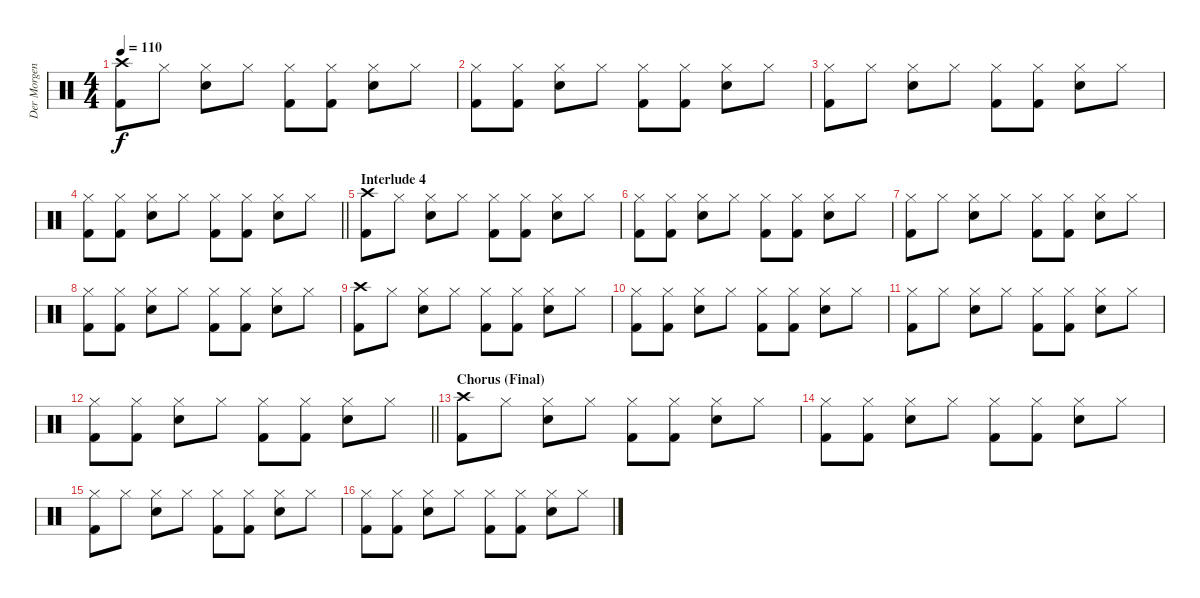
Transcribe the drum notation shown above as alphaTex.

\track ("Der Morgenstern" "Der Morgen") {instrument percussion}
\staff {score}
\articulation defaults
\ts (4 4)
\tempo 110
\clef neutral
\ks c
("Crash high (hit)" "Kick (hit) 2").8{dy f} "Hi-Hat (closed)".8 ("Hi-Hat (closed)" "Snare (hit) 2").8 "Hi-Hat (closed)".8 ("Hi-Hat (closed)" "Kick (hit) 2").8 ("Hi-Hat (closed)" "Kick (hit) 2").8 ("Hi-Hat (closed)" "Snare (hit) 2").8 "Hi-Hat (closed)".8 |
("Hi-Hat (closed)" "Kick (hit) 2").8 ("Hi-Hat (closed)" "Kick (hit) 2").8 ("Hi-Hat (closed)" "Snare (hit) 2").8 "Hi-Hat (closed)".8 ("Hi-Hat (closed)" "Kick (hit) 2").8 ("Hi-Hat (closed)" "Kick (hit) 2").8 ("Hi-Hat (closed)" "Snare (hit) 2").8 "Hi-Hat (closed)".8 |
("Hi-Hat (closed)" "Kick (hit) 2").8 "Hi-Hat (closed)".8 ("Hi-Hat (closed)" "Snare (hit) 2").8 "Hi-Hat (closed)".8 ("Hi-Hat (closed)" "Kick (hit) 2").8 ("Hi-Hat (closed)" "Kick (hit) 2").8 ("Hi-Hat (closed)" "Snare (hit) 2").8 "Hi-Hat (closed)".8 |
\barLineRight lightlight
("Hi-Hat (closed)" "Kick (hit) 2").8 ("Hi-Hat (closed)" "Kick (hit) 2").8 ("Hi-Hat (closed)" "Snare (hit) 2").8 "Hi-Hat (closed)".8 ("Hi-Hat (closed)" "Kick (hit) 2").8 ("Hi-Hat (closed)" "Kick (hit) 2").8 ("Hi-Hat (closed)" "Snare (hit) 2").8 "Hi-Hat (closed)".8 |
\section ("" "Interlude 4")
("Crash high (hit)" "Kick (hit) 2").8 "Hi-Hat (closed)".8 ("Hi-Hat (closed)" "Snare (hit) 2").8 "Hi-Hat (closed)".8 ("Hi-Hat (closed)" "Kick (hit) 2").8 ("Hi-Hat (closed)" "Kick (hit) 2").8 ("Hi-Hat (closed)" "Snare (hit) 2").8 "Hi-Hat (closed)".8 |
("Hi-Hat (closed)" "Kick (hit) 2").8 ("Hi-Hat (closed)" "Kick (hit) 2").8 ("Hi-Hat (closed)" "Snare (hit) 2").8 "Hi-Hat (closed)".8 ("Hi-Hat (closed)" "Kick (hit) 2").8 ("Hi-Hat (closed)" "Kick (hit) 2").8 ("Hi-Hat (closed)" "Snare (hit) 2").8 "Hi-Hat (closed)".8 |
("Hi-Hat (closed)" "Kick (hit) 2").8 "Hi-Hat (closed)".8 ("Hi-Hat (closed)" "Snare (hit) 2").8 "Hi-Hat (closed)".8 ("Hi-Hat (closed)" "Kick (hit) 2").8 ("Hi-Hat (closed)" "Kick (hit) 2").8 ("Hi-Hat (closed)" "Snare (hit) 2").8 "Hi-Hat (closed)".8 |
("Hi-Hat (closed)" "Kick (hit) 2").8 ("Hi-Hat (closed)" "Kick (hit) 2").8 ("Hi-Hat (closed)" "Snare (hit) 2").8 "Hi-Hat (closed)".8 ("Hi-Hat (closed)" "Kick (hit) 2").8 ("Hi-Hat (closed)" "Kick (hit) 2").8 ("Hi-Hat (closed)" "Snare (hit) 2").8 "Hi-Hat (closed)".8 |
("Crash high (hit)" "Kick (hit) 2").8 "Hi-Hat (closed)".8 ("Hi-Hat (closed)" "Snare (hit) 2").8 "Hi-Hat (closed)".8 ("Hi-Hat (closed)" "Kick (hit) 2").8 ("Hi-Hat (closed)" "Kick (hit) 2").8 ("Hi-Hat (closed)" "Snare (hit) 2").8 "Hi-Hat (closed)".8 |
("Hi-Hat (closed)" "Kick (hit) 2").8 ("Hi-Hat (closed)" "Kick (hit) 2").8 ("Hi-Hat (closed)" "Snare (hit) 2").8 "Hi-Hat (closed)".8 ("Hi-Hat (closed)" "Kick (hit) 2").8 ("Hi-Hat (closed)" "Kick (hit) 2").8 ("Hi-Hat (closed)" "Snare (hit) 2").8 "Hi-Hat (closed)".8 |
("Hi-Hat (closed)" "Kick (hit) 2").8 "Hi-Hat (closed)".8 ("Hi-Hat (closed)" "Snare (hit) 2").8 "Hi-Hat (closed)".8 ("Hi-Hat (closed)" "Kick (hit) 2").8 ("Hi-Hat (closed)" "Kick (hit) 2").8 ("Hi-Hat (closed)" "Snare (hit) 2").8 "Hi-Hat (closed)".8 |
\barLineRight lightlight
("Hi-Hat (closed)" "Kick (hit) 2").8 ("Hi-Hat (closed)" "Kick (hit) 2").8 ("Hi-Hat (closed)" "Snare (hit) 2").8 "Hi-Hat (closed)".8 ("Hi-Hat (closed)" "Kick (hit) 2").8 ("Hi-Hat (closed)" "Kick (hit) 2").8 ("Hi-Hat (closed)" "Snare (hit) 2").8 "Hi-Hat (closed)".8 |
\section ("" "Chorus (Final)")
("Crash high (hit)" "Kick (hit) 2").8 "Hi-Hat (closed)".8 ("Hi-Hat (closed)" "Snare (hit) 2").8 "Hi-Hat (closed)".8 ("Hi-Hat (closed)" "Kick (hit) 2").8 ("Hi-Hat (closed)" "Kick (hit) 2").8 ("Hi-Hat (closed)" "Snare (hit) 2").8 "Hi-Hat (closed)".8 |
("Hi-Hat (closed)" "Kick (hit) 2").8 ("Hi-Hat (closed)" "Kick (hit) 2").8 ("Hi-Hat (closed)" "Snare (hit) 2").8 "Hi-Hat (closed)".8 ("Hi-Hat (closed)" "Kick (hit) 2").8 ("Hi-Hat (closed)" "Kick (hit) 2").8 ("Hi-Hat (closed)" "Snare (hit) 2").8 "Hi-Hat (closed)".8 |
("Hi-Hat (closed)" "Kick (hit) 2").8 "Hi-Hat (closed)".8 ("Hi-Hat (closed)" "Snare (hit) 2").8 "Hi-Hat (closed)".8 ("Hi-Hat (closed)" "Kick (hit) 2").8 ("Hi-Hat (closed)" "Kick (hit) 2").8 ("Hi-Hat (closed)" "Snare (hit) 2").8 "Hi-Hat (closed)".8 |
("Hi-Hat (closed)" "Kick (hit) 2").8 ("Hi-Hat (closed)" "Kick (hit) 2").8 ("Hi-Hat (closed)" "Snare (hit) 2").8 "Hi-Hat (closed)".8 ("Hi-Hat (closed)" "Kick (hit) 2").8 ("Hi-Hat (closed)" "Kick (hit) 2").8 ("Hi-Hat (closed)" "Snare (hit) 2").8 "Hi-Hat (closed)".8
